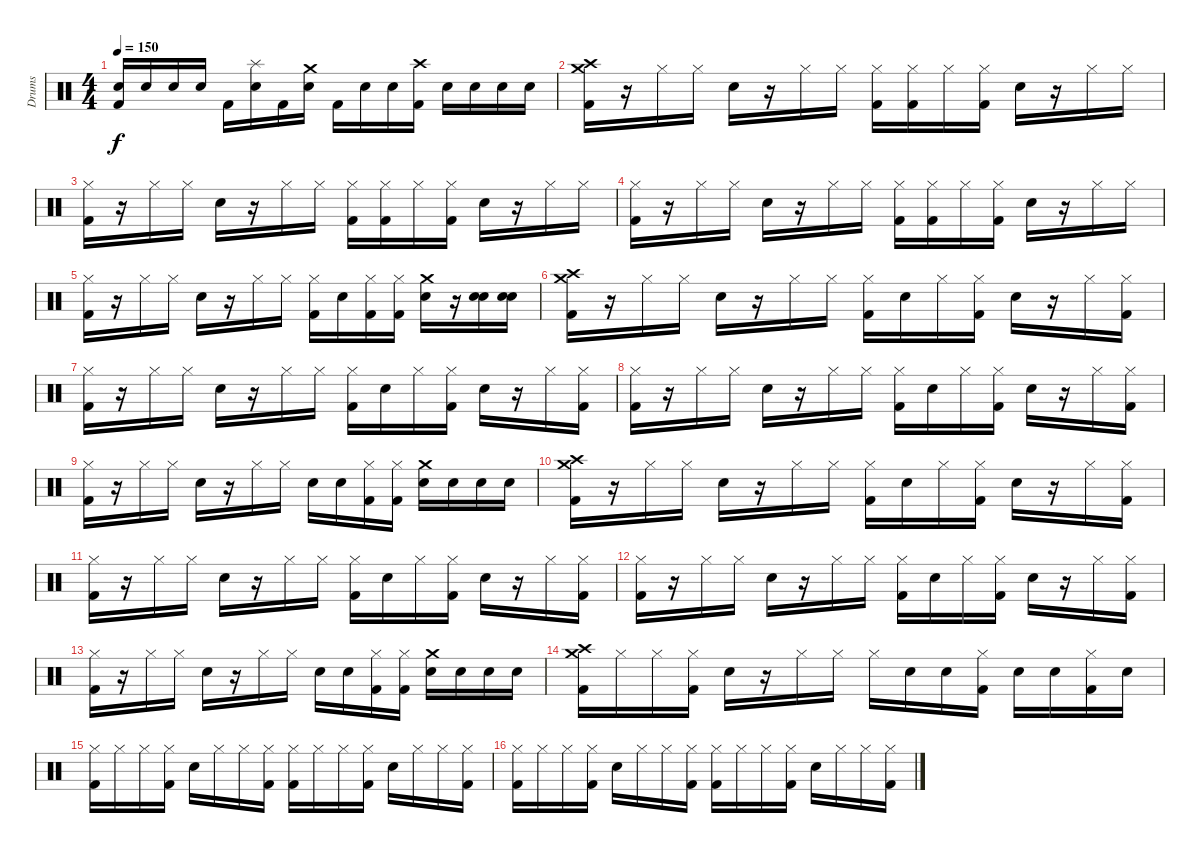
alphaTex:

\track ("Drums" "Drums") {instrument percussion}
\staff {score}
\articulation defaults
\ts (4 4)
\tempo 150
\clef neutral
\ks c
("Snare (hit) 2" "Kick (hit) 2").16{dy f} "Snare (hit) 2".16 "Snare (hit) 2".16 "Snare (hit) 2".16 "Kick (hit) 2".16 ("Splash (hit)" "Snare (hit) 2").16 "Kick (hit) 2".16 ("Crash medium (hit)" "Snare (hit) 2").16 "Kick (hit) 2".16 "Snare (hit) 2".16 "Snare (hit) 2".16 ("Crash high (hit)" "Kick (hit) 2").16 "Snare (hit) 2".16 "Snare (hit) 2".16 "Snare (hit) 2".16 "Snare (hit) 2".16 |
("Crash high (hit)" "Crash medium (hit)" "Kick (hit) 2").16 r.16 "Hi-Hat (closed)".16 "Hi-Hat (closed)".16 "Snare (hit) 2".16 r.16 "Hi-Hat (closed)".16 "Hi-Hat (closed)".16 ("Hi-Hat (closed)" "Kick (hit) 2").16 ("Hi-Hat (closed)" "Kick (hit) 2").16 "Hi-Hat (closed)".16 ("Hi-Hat (closed)" "Kick (hit) 2").16 "Snare (hit) 2".16 r.16 "Hi-Hat (closed)".16 "Hi-Hat (closed)".16 |
("Hi-Hat (closed)" "Kick (hit) 2").16 r.16 "Hi-Hat (closed)".16 "Hi-Hat (closed)".16 "Snare (hit) 2".16 r.16 "Hi-Hat (closed)".16 "Hi-Hat (closed)".16 ("Hi-Hat (closed)" "Kick (hit) 2").16 ("Hi-Hat (closed)" "Kick (hit) 2").16 "Hi-Hat (closed)".16 ("Hi-Hat (closed)" "Kick (hit) 2").16 "Snare (hit) 2".16 r.16 "Hi-Hat (closed)".16 "Hi-Hat (closed)".16 |
("Hi-Hat (closed)" "Kick (hit) 2").16 r.16 "Hi-Hat (closed)".16 "Hi-Hat (closed)".16 "Snare (hit) 2".16 r.16 "Hi-Hat (closed)".16 "Hi-Hat (closed)".16 ("Hi-Hat (closed)" "Kick (hit) 2").16 ("Hi-Hat (closed)" "Kick (hit) 2").16 "Hi-Hat (closed)".16 ("Hi-Hat (closed)" "Kick (hit) 2").16 "Snare (hit) 2".16 r.16 "Hi-Hat (closed)".16 "Hi-Hat (closed)".16 |
("Hi-Hat (closed)" "Kick (hit) 2").16 r.16 "Hi-Hat (closed)".16 "Hi-Hat (closed)".16 "Snare (hit) 2".16 r.16 "Hi-Hat (closed)".16 "Hi-Hat (closed)".16 ("Hi-Hat (closed)" "Kick (hit) 2").16 "Snare (hit) 2".16 ("Hi-Hat (closed)" "Kick (hit) 2").16 ("Hi-Hat (closed)" "Kick (hit) 2").16 ("Crash medium (hit)" "Snare (hit) 2").16 r.16 ("Snare (hit) 2" "Snare (hit) 2").16 ("Snare (hit) 2" "Snare (hit) 2").16 |
("Crash medium (hit)" "Crash high (hit)" "Kick (hit) 2").16 r.16 "Hi-Hat (closed)".16 "Hi-Hat (closed)".16 "Snare (hit) 2".16 r.16 "Hi-Hat (closed)".16 "Hi-Hat (closed)".16 ("Hi-Hat (closed)" "Kick (hit) 2").16 "Snare (hit) 2".16 "Hi-Hat (closed)".16 ("Hi-Hat (closed)" "Kick (hit) 2").16 "Snare (hit) 2".16 r.16 "Hi-Hat (closed)".16 ("Hi-Hat (closed)" "Kick (hit) 2").16 |
("Hi-Hat (closed)" "Kick (hit) 2").16 r.16 "Hi-Hat (closed)".16 "Hi-Hat (closed)".16 "Snare (hit) 2".16 r.16 "Hi-Hat (closed)".16 "Hi-Hat (closed)".16 ("Hi-Hat (closed)" "Kick (hit) 2").16 "Snare (hit) 2".16 "Hi-Hat (closed)".16 ("Hi-Hat (closed)" "Kick (hit) 2").16 "Snare (hit) 2".16 r.16 "Hi-Hat (closed)".16 ("Hi-Hat (closed)" "Kick (hit) 2").16 |
("Hi-Hat (closed)" "Kick (hit) 2").16 r.16 "Hi-Hat (closed)".16 "Hi-Hat (closed)".16 "Snare (hit) 2".16 r.16 "Hi-Hat (closed)".16 "Hi-Hat (closed)".16 ("Hi-Hat (closed)" "Kick (hit) 2").16 "Snare (hit) 2".16 "Hi-Hat (closed)".16 ("Hi-Hat (closed)" "Kick (hit) 2").16 "Snare (hit) 2".16 r.16 "Hi-Hat (closed)".16 ("Hi-Hat (closed)" "Kick (hit) 2").16 |
("Hi-Hat (closed)" "Kick (hit) 2").16 r.16 "Hi-Hat (closed)".16 "Hi-Hat (closed)".16 "Snare (hit) 2".16 r.16 "Hi-Hat (closed)".16 "Hi-Hat (closed)".16 "Snare (hit) 2".16 "Snare (hit) 2".16 ("Hi-Hat (closed)" "Kick (hit) 2").16 ("Hi-Hat (closed)" "Kick (hit) 2").16 ("Crash medium (hit)" "Snare (hit) 2").16 "Snare (hit) 2".16 "Snare (hit) 2".16 "Snare (hit) 2".16 |
("Crash medium (hit)" "Crash high (hit)" "Kick (hit) 2").16 r.16 "Hi-Hat (closed)".16 "Hi-Hat (closed)".16 "Snare (hit) 2".16 r.16 "Hi-Hat (closed)".16 "Hi-Hat (closed)".16 ("Hi-Hat (closed)" "Kick (hit) 2").16 "Snare (hit) 2".16 "Hi-Hat (closed)".16 ("Hi-Hat (closed)" "Kick (hit) 2").16 "Snare (hit) 2".16 r.16 "Hi-Hat (closed)".16 ("Hi-Hat (closed)" "Kick (hit) 2").16 |
("Hi-Hat (closed)" "Kick (hit) 2").16 r.16 "Hi-Hat (closed)".16 "Hi-Hat (closed)".16 "Snare (hit) 2".16 r.16 "Hi-Hat (closed)".16 "Hi-Hat (closed)".16 ("Hi-Hat (closed)" "Kick (hit) 2").16 "Snare (hit) 2".16 "Hi-Hat (closed)".16 ("Hi-Hat (closed)" "Kick (hit) 2").16 "Snare (hit) 2".16 r.16 "Hi-Hat (closed)".16 ("Hi-Hat (closed)" "Kick (hit) 2").16 |
("Hi-Hat (closed)" "Kick (hit) 2").16 r.16 "Hi-Hat (closed)".16 "Hi-Hat (closed)".16 "Snare (hit) 2".16 r.16 "Hi-Hat (closed)".16 "Hi-Hat (closed)".16 ("Hi-Hat (closed)" "Kick (hit) 2").16 "Snare (hit) 2".16 "Hi-Hat (closed)".16 ("Hi-Hat (closed)" "Kick (hit) 2").16 "Snare (hit) 2".16 r.16 "Hi-Hat (closed)".16 ("Hi-Hat (closed)" "Kick (hit) 2").16 |
("Hi-Hat (closed)" "Kick (hit) 2").16 r.16 "Hi-Hat (closed)".16 "Hi-Hat (closed)".16 "Snare (hit) 2".16 r.16 "Hi-Hat (closed)".16 "Hi-Hat (closed)".16 "Snare (hit) 2".16 "Snare (hit) 2".16 ("Hi-Hat (closed)" "Kick (hit) 2").16 ("Hi-Hat (closed)" "Kick (hit) 2").16 ("Crash medium (hit)" "Snare (hit) 2").16 "Snare (hit) 2".16 "Snare (hit) 2".16 "Snare (hit) 2".16 |
("Crash medium (hit)" "Crash high (hit)" "Kick (hit) 2").16 "Hi-Hat (closed)".16 "Hi-Hat (closed)".16 ("Hi-Hat (closed)" "Kick (hit) 2").16 "Snare (hit) 2".16 r.16 "Hi-Hat (closed)".16 "Hi-Hat (closed)".16 "Hi-Hat (closed)".16 "Snare (hit) 2".16 "Snare (hit) 2".16 ("Hi-Hat (closed)" "Kick (hit) 2").16 "Snare (hit) 2".16 "Snare (hit) 2".16 ("Hi-Hat (closed)" "Kick (hit) 2").16 "Snare (hit) 2".16 |
("Hi-Hat (closed)" "Kick (hit) 2").16 "Hi-Hat (closed)".16 "Hi-Hat (closed)".16 ("Hi-Hat (closed)" "Kick (hit) 2").16 "Snare (hit) 2".16 "Hi-Hat (closed)".16 "Hi-Hat (closed)".16 ("Hi-Hat (closed)" "Kick (hit) 2").16 ("Hi-Hat (closed)" "Kick (hit) 2").16 "Hi-Hat (closed)".16 "Hi-Hat (closed)".16 ("Hi-Hat (closed)" "Kick (hit) 2").16 "Snare (hit) 2".16 "Hi-Hat (closed)".16 "Hi-Hat (closed)".16 ("Hi-Hat (closed)" "Kick (hit) 2").16 |
("Hi-Hat (closed)" "Kick (hit) 2").16 "Hi-Hat (closed)".16 "Hi-Hat (closed)".16 ("Hi-Hat (closed)" "Kick (hit) 2").16 "Snare (hit) 2".16 "Hi-Hat (closed)".16 "Hi-Hat (closed)".16 ("Hi-Hat (closed)" "Kick (hit) 2").16 ("Hi-Hat (closed)" "Kick (hit) 2").16 "Hi-Hat (closed)".16 "Hi-Hat (closed)".16 ("Hi-Hat (closed)" "Kick (hit) 2").16 "Snare (hit) 2".16 "Hi-Hat (closed)".16 "Hi-Hat (closed)".16 ("Hi-Hat (closed)" "Kick (hit) 2").16
